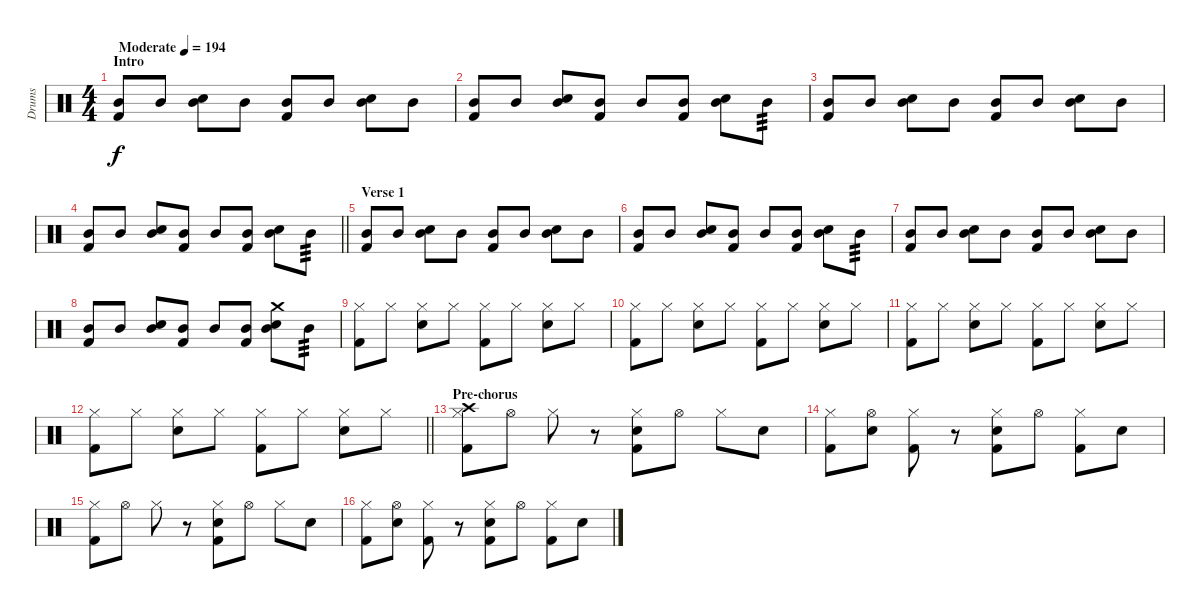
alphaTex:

\track ("Drums" "Drums") {instrument percussion}
\staff {score}
\articulation defaults
\ts (4 4)
\section ("" "Intro")
\tempo (194 "Moderate")
\clef neutral
\ks c
("Mid Tom (hit)" "Kick (hit) 2").8{dy f} "Mid Tom (hit)".8 ("Mid Tom (hit)" "Snare (hit) 2").8 "Mid Tom (hit)".8 ("Mid Tom (hit)" "Kick (hit) 2").8 "Mid Tom (hit)".8 ("Mid Tom (hit)" "Snare (hit) 2").8 "Mid Tom (hit)".8 |
("Mid Tom (hit)" "Kick (hit) 2").8 "Mid Tom (hit)".8 ("Mid Tom (hit)" "Snare (hit) 2").8 ("Mid Tom (hit)" "Kick (hit) 2").8 "Mid Tom (hit)".8 ("Mid Tom (hit)" "Kick (hit) 2").8 ("Mid Tom (hit)" "Snare (hit) 2").8 "Mid Tom (hit)".8{tp 3} |
("Mid Tom (hit)" "Kick (hit) 2").8 "Mid Tom (hit)".8 ("Mid Tom (hit)" "Snare (hit) 2").8 "Mid Tom (hit)".8 ("Mid Tom (hit)" "Kick (hit) 2").8 "Mid Tom (hit)".8 ("Mid Tom (hit)" "Snare (hit) 2").8 "Mid Tom (hit)".8 |
\barLineRight lightlight
("Mid Tom (hit)" "Kick (hit) 2").8 "Mid Tom (hit)".8 ("Mid Tom (hit)" "Snare (hit) 2").8 ("Mid Tom (hit)" "Kick (hit) 2").8 "Mid Tom (hit)".8 ("Mid Tom (hit)" "Kick (hit) 2").8 ("Mid Tom (hit)" "Snare (hit) 2").8 "Mid Tom (hit)".8{tp 3} |
\section ("" "Verse 1")
("Mid Tom (hit)" "Kick (hit) 2").8 "Mid Tom (hit)".8 ("Mid Tom (hit)" "Snare (hit) 2").8 "Mid Tom (hit)".8 ("Mid Tom (hit)" "Kick (hit) 2").8 "Mid Tom (hit)".8 ("Mid Tom (hit)" "Snare (hit) 2").8 "Mid Tom (hit)".8 |
("Mid Tom (hit)" "Kick (hit) 2").8 "Mid Tom (hit)".8 ("Mid Tom (hit)" "Snare (hit) 2").8 ("Mid Tom (hit)" "Kick (hit) 2").8 "Mid Tom (hit)".8 ("Mid Tom (hit)" "Kick (hit) 2").8 ("Mid Tom (hit)" "Snare (hit) 2").8 "Mid Tom (hit)".8{tp 3} |
("Mid Tom (hit)" "Kick (hit) 2").8 "Mid Tom (hit)".8 ("Mid Tom (hit)" "Snare (hit) 2").8 "Mid Tom (hit)".8 ("Mid Tom (hit)" "Kick (hit) 2").8 "Mid Tom (hit)".8 ("Mid Tom (hit)" "Snare (hit) 2").8 "Mid Tom (hit)".8 |
("Mid Tom (hit)" "Kick (hit) 2").8 "Mid Tom (hit)".8 ("Mid Tom (hit)" "Snare (hit) 2").8 ("Mid Tom (hit)" "Kick (hit) 2").8 "Mid Tom (hit)".8 ("Mid Tom (hit)" "Kick (hit) 2").8 ("Mid Tom (hit)" "Crash medium (hit)" "Snare (hit) 2").8 "Mid Tom (hit)".8{tp 3} |
("Hi-Hat (closed)" "Kick (hit) 2").8 "Hi-Hat (closed)".8 ("Hi-Hat (closed)" "Snare (hit) 2").8 "Hi-Hat (closed)".8 ("Hi-Hat (closed)" "Kick (hit) 2").8 "Hi-Hat (closed)".8 ("Hi-Hat (closed)" "Snare (hit) 2").8 "Hi-Hat (closed)".8 |
("Hi-Hat (closed)" "Kick (hit) 2").8 "Hi-Hat (closed)".8 ("Hi-Hat (closed)" "Snare (hit) 2").8 "Hi-Hat (closed)".8 ("Hi-Hat (closed)" "Kick (hit) 2").8 "Hi-Hat (closed)".8 ("Hi-Hat (closed)" "Snare (hit) 2").8 "Hi-Hat (closed)".8 |
("Hi-Hat (closed)" "Kick (hit) 2").8 "Hi-Hat (closed)".8 ("Hi-Hat (closed)" "Snare (hit) 2").8 "Hi-Hat (closed)".8 ("Hi-Hat (closed)" "Kick (hit) 2").8 "Hi-Hat (closed)".8 ("Hi-Hat (closed)" "Snare (hit) 2").8 "Hi-Hat (closed)".8 |
\barLineRight lightlight
("Hi-Hat (closed)" "Kick (hit) 2").8 "Hi-Hat (closed)".8 ("Hi-Hat (closed)" "Snare (hit) 2").8 "Hi-Hat (closed)".8 ("Hi-Hat (closed)" "Kick (hit) 2").8 "Hi-Hat (closed)".8 ("Hi-Hat (closed)" "Snare (hit) 2").8 "Hi-Hat (closed)".8 |
\section ("" "Pre-chorus")
("Hi-Hat (closed)" "Crash high (hit)" "Kick (hit) 2").8 "Hi-Hat (open)".8 "Hi-Hat (closed)".8 r.8 ("Hi-Hat (closed)" "Snare (hit) 2" "Kick (hit) 2").8 "Hi-Hat (open)".8 "Hi-Hat (closed)".8 "Snare (hit) 2".8 |
("Hi-Hat (closed)" "Kick (hit) 2").8 ("Hi-Hat (open)" "Snare (hit) 2").8 ("Hi-Hat (closed)" "Kick (hit) 2").8 r.8 ("Hi-Hat (closed)" "Snare (hit) 2" "Kick (hit) 2").8 "Hi-Hat (open)".8 ("Hi-Hat (closed)" "Kick (hit) 2").8 "Snare (hit) 2".8 |
("Hi-Hat (closed)" "Kick (hit) 2").8 "Hi-Hat (open)".8 "Hi-Hat (closed)".8 r.8 ("Hi-Hat (closed)" "Snare (hit) 2" "Kick (hit) 2").8 "Hi-Hat (open)".8 "Hi-Hat (closed)".8 "Snare (hit) 2".8 |
("Hi-Hat (closed)" "Kick (hit) 2").8 ("Hi-Hat (open)" "Snare (hit) 2").8 ("Hi-Hat (closed)" "Kick (hit) 2").8 r.8 ("Hi-Hat (closed)" "Snare (hit) 2" "Kick (hit) 2").8 "Hi-Hat (open)".8 ("Hi-Hat (closed)" "Kick (hit) 2").8 "Snare (hit) 2".8
